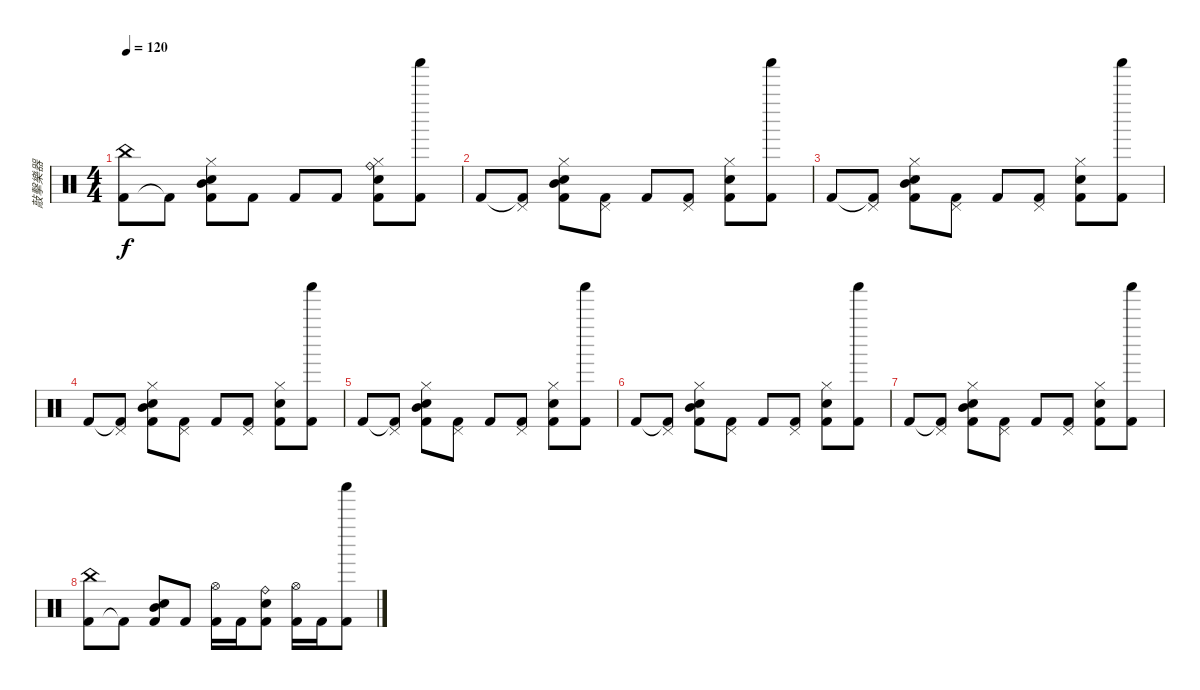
\track ("敲擊樂器" "敲擊樂器") {instrument percussion}
\staff {score}
\articulation defaults
\ts (4 4)
\tempo 120
\clef neutral
\ks c
("Kick (hit) 2" "China (hit)").8{dy f} "Kick (hit) 2"{t}.8 ("Kick (hit) 2" "Electric Snare (hit)" "Mid Tom (hit)" "Hi-Hat (closed)").8 "Kick (hit) 2".8 "Kick (hit) 2".8 "Kick (hit) 2".8 ("Kick (hit) 2" "Electric Snare (hit)" "Ride (bell)" "Hi-Hat (closed)").8 ("Kick (hit) 2" "Shaker (hit)").8 |
"Kick (hit) 2".8 ("Kick (hit) 2"{t} "Pedal Hi-Hat (hit)").8 ("Kick (hit) 2" "Electric Snare (hit)" "Mid Tom (hit)" "Hi-Hat (closed)").8 ("Kick (hit) 2" "Pedal Hi-Hat (hit)").8 "Kick (hit) 2".8 ("Kick (hit) 2" "Pedal Hi-Hat (hit)").8 ("Kick (hit) 2" "Electric Snare (hit)" "Hi-Hat (closed)").8 ("Kick (hit) 2" "Shaker (hit)").8 |
"Kick (hit) 2".8 ("Kick (hit) 2"{t} "Pedal Hi-Hat (hit)").8 ("Kick (hit) 2" "Electric Snare (hit)" "Mid Tom (hit)" "Hi-Hat (closed)").8 ("Kick (hit) 2" "Pedal Hi-Hat (hit)").8 "Kick (hit) 2".8 ("Kick (hit) 2" "Pedal Hi-Hat (hit)").8 ("Kick (hit) 2" "Electric Snare (hit)" "Hi-Hat (closed)").8 ("Kick (hit) 2" "Shaker (hit)").8 |
"Kick (hit) 2".8 ("Kick (hit) 2"{t} "Pedal Hi-Hat (hit)").8 ("Kick (hit) 2" "Electric Snare (hit)" "Mid Tom (hit)" "Hi-Hat (closed)").8 ("Kick (hit) 2" "Pedal Hi-Hat (hit)").8 "Kick (hit) 2".8 ("Kick (hit) 2" "Pedal Hi-Hat (hit)").8 ("Kick (hit) 2" "Electric Snare (hit)" "Hi-Hat (closed)").8 ("Kick (hit) 2" "Shaker (hit)").8 |
"Kick (hit) 2".8 ("Kick (hit) 2"{t} "Pedal Hi-Hat (hit)").8 ("Kick (hit) 2" "Electric Snare (hit)" "Mid Tom (hit)" "Hi-Hat (closed)").8 ("Kick (hit) 2" "Pedal Hi-Hat (hit)").8 "Kick (hit) 2".8 ("Kick (hit) 2" "Pedal Hi-Hat (hit)").8 ("Kick (hit) 2" "Electric Snare (hit)" "Hi-Hat (closed)").8 ("Kick (hit) 2" "Shaker (hit)").8 |
"Kick (hit) 2".8 ("Kick (hit) 2"{t} "Pedal Hi-Hat (hit)").8 ("Kick (hit) 2" "Electric Snare (hit)" "Mid Tom (hit)" "Hi-Hat (closed)").8 ("Kick (hit) 2" "Pedal Hi-Hat (hit)").8 "Kick (hit) 2".8 ("Kick (hit) 2" "Pedal Hi-Hat (hit)").8 ("Kick (hit) 2" "Electric Snare (hit)" "Hi-Hat (closed)").8 ("Kick (hit) 2" "Shaker (hit)").8 |
"Kick (hit) 2".8 ("Kick (hit) 2"{t} "Pedal Hi-Hat (hit)").8 ("Kick (hit) 2" "Electric Snare (hit)" "Mid Tom (hit)" "Hi-Hat (closed)").8 ("Kick (hit) 2" "Pedal Hi-Hat (hit)").8 "Kick (hit) 2".8 ("Kick (hit) 2" "Pedal Hi-Hat (hit)").8 ("Kick (hit) 2" "Electric Snare (hit)" "Hi-Hat (closed)").8 ("Kick (hit) 2" "Shaker (hit)").8 |
("Kick (hit) 2" "China (hit)").8 "Kick (hit) 2"{t}.8 ("Kick (hit) 2" "Electric Snare (hit)" "Mid Tom (hit)").8 "Kick (hit) 2".8 ("Kick (hit) 2" "Hi-Hat (open)").16 "Kick (hit) 2".16 ("Kick (hit) 2" "Electric Snare (hit)" "Ride (bell)").8 ("Kick (hit) 2" "Hi-Hat (open)").16 "Kick (hit) 2".16 ("Kick (hit) 2" "Shaker (hit)").8
